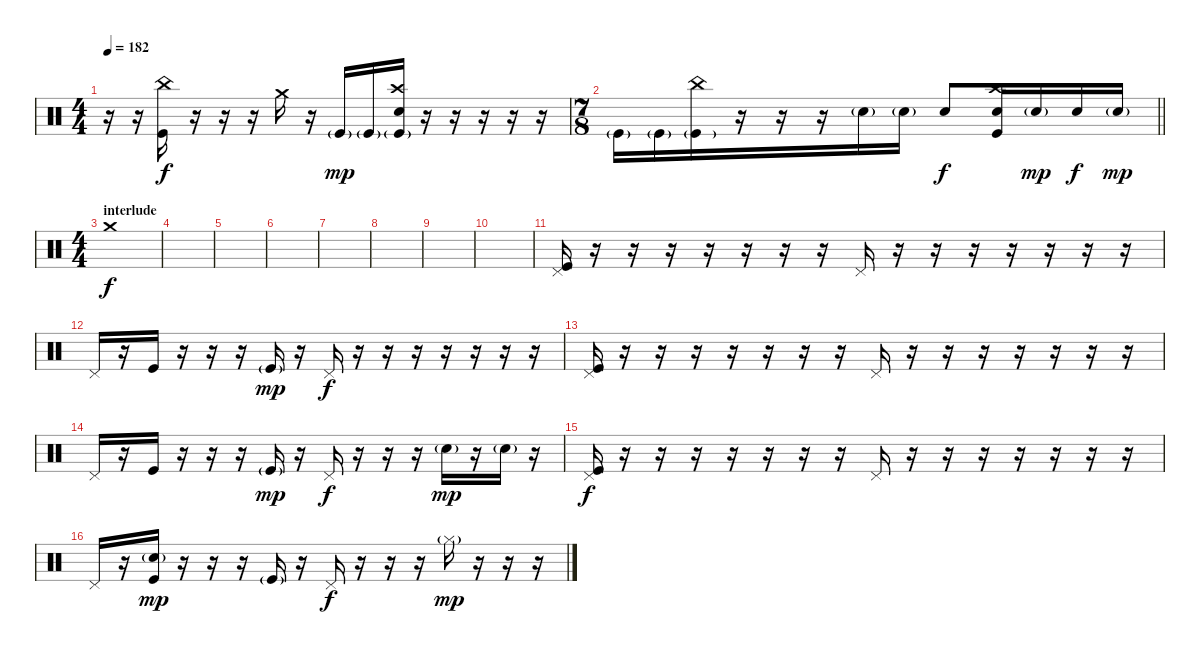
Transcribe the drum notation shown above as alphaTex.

\track "" {instrument percussion}
\staff {score}
\articulation defaults
\ts (4 4)
\tempo 182
\clef neutral
\ks c
r.16{dy f} r.16 ("Kick (hit)" "China (hit)").16 r.16 r.16 r.16 "Crash medium (hit)".16 r.16 "Kick (hit)"{g}.16{dy mp} "Kick (hit)"{g}.16 ("Crash high (hit)" "Kick (hit)"{g} "Electric Snare (hit)").16 r.16 r.16 r.16 r.16 r.16 |
\ts (7 8)
\barLineRight lightlight "Kick (hit)"{g}.16 "Kick (hit)"{g}.16
("Kick (hit)"{g} "China (hit)").16 r.16 r.16 r.16 "Electric Snare (hit)"{g}.16 "Electric Snare (hit)"{g}.16 "Electric Snare (hit)".8{dy f} ("Crash high (hit)" "Kick (hit)" "Electric Snare (hit)").16 "Electric Snare (hit)"{g}.16{dy mp} "Electric Snare (hit)".16{dy f} "Electric Snare (hit)"{g}.16{dy mp} |
\ts (4 4)
\section ("" "interlude")
"Crash medium (hit)".1{dy f} |
|
|
|
|
|
|
|
("Kick (hit)" "Pedal Hi-Hat (hit)").16 r.16 r.16 r.16 r.16 r.16 r.16 r.16 "Pedal Hi-Hat (hit)".16 r.16 r.16 r.16 r.16 r.16 r.16 r.16 |
"Pedal Hi-Hat (hit)".16 r.16 "Kick (hit)".16 r.16 r.16 r.16 "Kick (hit)"{g}.16{dy mp} r.16 "Pedal Hi-Hat (hit)".16{dy f} r.16 r.16 r.16 r.16 r.16 r.16 r.16 |
("Kick (hit)" "Pedal Hi-Hat (hit)").16 r.16 r.16 r.16 r.16 r.16 r.16 r.16 "Pedal Hi-Hat (hit)".16 r.16 r.16 r.16 r.16 r.16 r.16 r.16 |
"Pedal Hi-Hat (hit)".16 r.16 "Kick (hit)".16 r.16 r.16 r.16 "Kick (hit)"{g}.16{dy mp} r.16 "Pedal Hi-Hat (hit)".16{dy f} r.16 r.16 r.16 "Electric Snare (hit)"{g}.16{dy mp} r.16 "Electric Snare (hit)"{g}.16 r.16 |
("Kick (hit)" "Pedal Hi-Hat (hit)").16{dy f} r.16 r.16 r.16 r.16 r.16 r.16 r.16 "Pedal Hi-Hat (hit)".16 r.16 r.16 r.16 r.16 r.16 r.16 r.16 |
"Pedal Hi-Hat (hit)".16 r.16 ("Kick (hit)" "Electric Snare (hit)"{g}).16{dy mp} r.16 r.16 r.16 "Kick (hit)"{g}.16 r.16 "Pedal Hi-Hat (hit)".16{dy f} r.16 r.16 r.16 "Hi-Hat (closed)"{g}.16{dy mp} r.16 r.16 r.16
